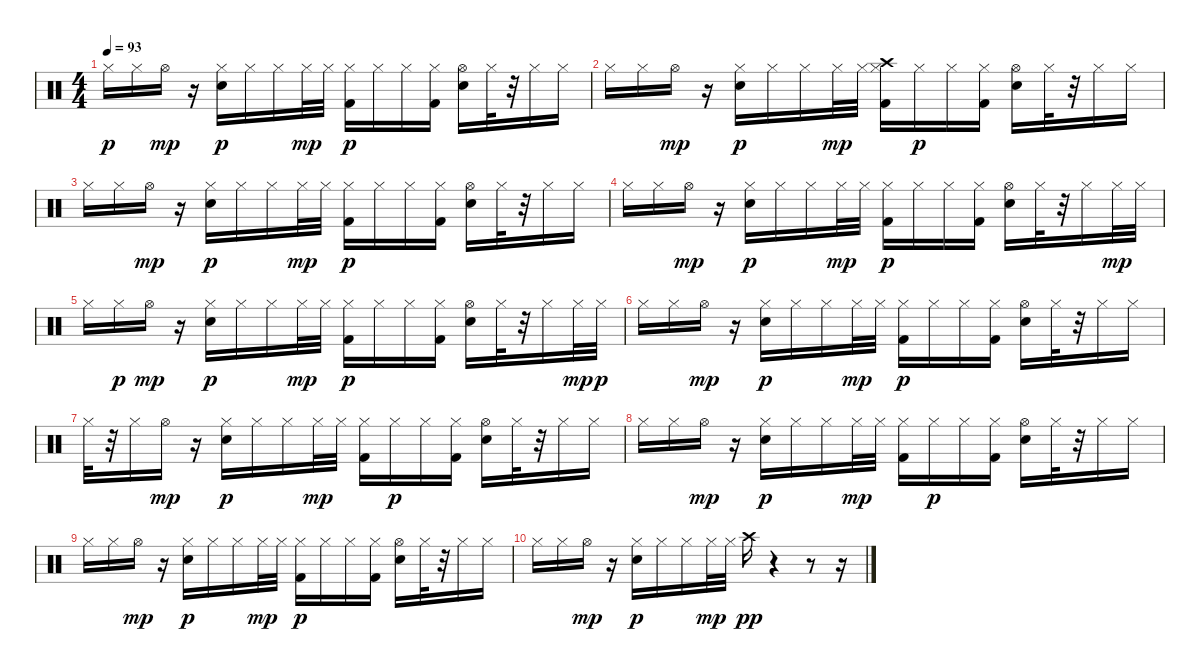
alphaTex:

\track "" {instrument percussion}
\staff {score}
\articulation defaults
\ts (4 4)
\tempo 93
\clef neutral
\ks c "Hi-Hat (closed)".16{dy p} "Hi-Hat (closed)".16 "Hi-Hat (open)".16{dy mp}
r.16 ("Hi-Hat (closed)" "Snare (hit) 2").16{dy p} "Hi-Hat (closed)".16 "Hi-Hat (closed)".16 "Hi-Hat (closed)".32{dy mp} "Hi-Hat (closed)".32 ("Hi-Hat (closed)" "Kick (hit) 2").16{dy p} "Hi-Hat (closed)".16 "Hi-Hat (closed)".16 ("Hi-Hat (closed)" "Kick (hit) 2").16 ("Hi-Hat (open)" "Snare (hit) 2").16 "Hi-Hat (closed)".32 r.32 "Hi-Hat (closed)".16 "Hi-Hat (closed)".16 |
"Hi-Hat (closed)".16 "Hi-Hat (closed)".16 "Hi-Hat (open)".16{dy mp} r.16 ("Hi-Hat (closed)" "Snare (hit) 2").16{dy p} "Hi-Hat (closed)".16 "Hi-Hat (closed)".16 "Hi-Hat (closed)".32{dy mp} "Hi-Hat (closed)".32 ("Hi-Hat (closed)" "Kick (hit) 2" "Crash high (hit)").16 "Hi-Hat (closed)".16{dy p} "Hi-Hat (closed)".16 ("Hi-Hat (closed)" "Kick (hit) 2").16 ("Hi-Hat (open)" "Snare (hit) 2").16 "Hi-Hat (closed)".32 r.32 "Hi-Hat (closed)".16 "Hi-Hat (closed)".16 |
"Hi-Hat (closed)".16 "Hi-Hat (closed)".16 "Hi-Hat (open)".16{dy mp} r.16 ("Hi-Hat (closed)" "Snare (hit) 2").16{dy p} "Hi-Hat (closed)".16 "Hi-Hat (closed)".16 "Hi-Hat (closed)".32{dy mp} "Hi-Hat (closed)".32 ("Hi-Hat (closed)" "Kick (hit) 2").16{dy p} "Hi-Hat (closed)".16 "Hi-Hat (closed)".16 ("Hi-Hat (closed)" "Kick (hit) 2").16 ("Hi-Hat (open)" "Snare (hit) 2").16 "Hi-Hat (closed)".32 r.32 "Hi-Hat (closed)".16 "Hi-Hat (closed)".16 |
"Hi-Hat (closed)".16 "Hi-Hat (closed)".16 "Hi-Hat (open)".16{dy mp} r.16 ("Hi-Hat (closed)" "Snare (hit) 2").16{dy p} "Hi-Hat (closed)".16 "Hi-Hat (closed)".16 "Hi-Hat (closed)".32{dy mp} "Hi-Hat (closed)".32 ("Hi-Hat (closed)" "Kick (hit) 2").16{dy p} "Hi-Hat (closed)".16 "Hi-Hat (closed)".16 ("Hi-Hat (closed)" "Kick (hit) 2").16 ("Hi-Hat (open)" "Snare (hit) 2").16 "Hi-Hat (closed)".32 r.32 "Hi-Hat (closed)".16 "Hi-Hat (closed)".32{dy mp} "Hi-Hat (closed)".32 |
"Hi-Hat (closed)".16 "Hi-Hat (closed)".16{dy p} "Hi-Hat (open)".16{dy mp} r.16 ("Hi-Hat (closed)" "Snare (hit) 2").16{dy p} "Hi-Hat (closed)".16 "Hi-Hat (closed)".16 "Hi-Hat (closed)".32{dy mp} "Hi-Hat (closed)".32 ("Hi-Hat (closed)" "Kick (hit) 2").16{dy p} "Hi-Hat (closed)".16 "Hi-Hat (closed)".16 ("Hi-Hat (closed)" "Kick (hit) 2").16 ("Hi-Hat (open)" "Snare (hit) 2").16 "Hi-Hat (closed)".32 r.32 "Hi-Hat (closed)".16 "Hi-Hat (closed)".32{dy mp} "Hi-Hat (closed)".32{dy p} |
"Hi-Hat (closed)".16 "Hi-Hat (closed)".16 "Hi-Hat (open)".16{dy mp} r.16 ("Hi-Hat (closed)" "Snare (hit) 2").16{dy p} "Hi-Hat (closed)".16 "Hi-Hat (closed)".16 "Hi-Hat (closed)".32{dy mp} "Hi-Hat (closed)".32 ("Hi-Hat (closed)" "Kick (hit) 2").16{dy p} "Hi-Hat (closed)".16 "Hi-Hat (closed)".16 ("Hi-Hat (closed)" "Kick (hit) 2").16 ("Hi-Hat (open)" "Snare (hit) 2").16 "Hi-Hat (closed)".32 r.32 "Hi-Hat (closed)".16 "Hi-Hat (closed)".16 |
"Hi-Hat (closed)".32 r.32 "Hi-Hat (closed)".16 "Hi-Hat (open)".16{dy mp} r.16 ("Hi-Hat (closed)" "Snare (hit) 2").16{dy p} "Hi-Hat (closed)".16 "Hi-Hat (closed)".16 "Hi-Hat (closed)".32{dy mp} "Hi-Hat (closed)".32 ("Hi-Hat (closed)" "Kick (hit) 2").16 "Hi-Hat (closed)".16{dy p} "Hi-Hat (closed)".16 ("Hi-Hat (closed)" "Kick (hit) 2").16 ("Hi-Hat (open)" "Snare (hit) 2").16 "Hi-Hat (closed)".32 r.32 "Hi-Hat (closed)".16 "Hi-Hat (closed)".16 |
"Hi-Hat (closed)".16 "Hi-Hat (closed)".16 "Hi-Hat (open)".16{dy mp} r.16 ("Hi-Hat (closed)" "Snare (hit) 2").16{dy p} "Hi-Hat (closed)".16 "Hi-Hat (closed)".16 "Hi-Hat (closed)".32{dy mp} "Hi-Hat (closed)".32 ("Hi-Hat (closed)" "Kick (hit) 2").16 "Hi-Hat (closed)".16{dy p} "Hi-Hat (closed)".16 ("Hi-Hat (closed)" "Kick (hit) 2").16 ("Hi-Hat (open)" "Snare (hit) 2").16 "Hi-Hat (closed)".32 r.32 "Hi-Hat (closed)".16 "Hi-Hat (closed)".16 |
"Hi-Hat (closed)".16 "Hi-Hat (closed)".16 "Hi-Hat (open)".16{dy mp} r.16 ("Hi-Hat (closed)" "Snare (hit) 2").16{dy p} "Hi-Hat (closed)".16 "Hi-Hat (closed)".16 "Hi-Hat (closed)".32{dy mp} "Hi-Hat (closed)".32 ("Hi-Hat (closed)" "Kick (hit) 2").16{dy p} "Hi-Hat (closed)".16 "Hi-Hat (closed)".16 ("Hi-Hat (closed)" "Kick (hit) 2").16 ("Hi-Hat (open)" "Snare (hit) 2").16 "Hi-Hat (closed)".32 r.32 "Hi-Hat (closed)".16 "Hi-Hat (closed)".16 |
"Hi-Hat (closed)".16 "Hi-Hat (closed)".16 "Hi-Hat (open)".16{dy mp} r.16 ("Hi-Hat (closed)" "Snare (hit) 2").16{dy p} "Hi-Hat (closed)".16 "Hi-Hat (closed)".16 "Hi-Hat (closed)".32{dy mp} "Hi-Hat (closed)".32 "Crash high (hit)".16{dy pp} r.4 r.8 r.16
